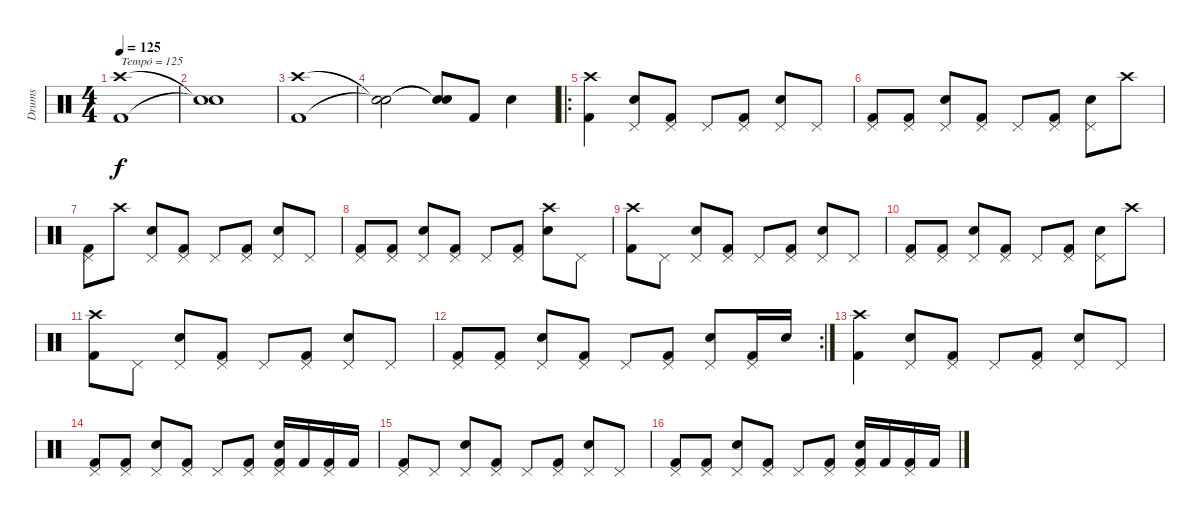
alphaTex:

\track ("Drums" "Drums") {instrument percussion}
\staff {score}
\articulation defaults
\ts (4 4)
\tempo 125
\clef neutral
\ks c
("Crash high (hit)" "Kick (hit) 2").1{txt "Tempó = 125" dy f} |
("Snare (hit)"{t} "Snare (hit)"{t}).1 |
("Crash high (hit)" "Kick (hit) 2").1 |
("Snare (hit)"{t} "Snare (hit)"{t}).2 ("Snare (hit)"{t} "Snare (hit)"{t}).8 "Kick (hit) 2".8 "Snare (hit) 2".4 |
\ro
("Crash high (hit)" "Kick (hit) 2").4 ("Pedal Hi-Hat (hit)" "Snare (hit) 2").8 ("Pedal Hi-Hat (hit)" "Kick (hit) 2").8 "Pedal Hi-Hat (hit)".8 ("Pedal Hi-Hat (hit)" "Kick (hit) 2").8 ("Pedal Hi-Hat (hit)" "Snare (hit) 2").8 "Pedal Hi-Hat (hit)".8 |
("Pedal Hi-Hat (hit)" "Kick (hit) 2").8 ("Pedal Hi-Hat (hit)" "Kick (hit) 2").8 ("Pedal Hi-Hat (hit)" "Snare (hit) 2").8 ("Pedal Hi-Hat (hit)" "Kick (hit) 2").8 "Pedal Hi-Hat (hit)".8 ("Pedal Hi-Hat (hit)" "Kick (hit) 2").8 ("Pedal Hi-Hat (hit)" "Snare (hit) 2").8 "Crash high (hit)".8 |
("Pedal Hi-Hat (hit)" "Kick (hit) 2").8 "Crash high (hit)".8 ("Pedal Hi-Hat (hit)" "Snare (hit) 2").8 ("Pedal Hi-Hat (hit)" "Kick (hit) 2").8 "Pedal Hi-Hat (hit)".8 ("Pedal Hi-Hat (hit)" "Kick (hit) 2").8 ("Pedal Hi-Hat (hit)" "Snare (hit) 2").8 "Pedal Hi-Hat (hit)".8 |
("Pedal Hi-Hat (hit)" "Kick (hit) 2").8 ("Pedal Hi-Hat (hit)" "Kick (hit) 2").8 ("Pedal Hi-Hat (hit)" "Snare (hit) 2").8 ("Pedal Hi-Hat (hit)" "Kick (hit) 2").8 "Pedal Hi-Hat (hit)".8 ("Pedal Hi-Hat (hit)" "Kick (hit) 2").8 ("Crash high (hit)" "Snare (hit) 2").8 "Pedal Hi-Hat (hit)".8 |
("Crash high (hit)" "Kick (hit) 2").8 "Pedal Hi-Hat (hit)".8 ("Pedal Hi-Hat (hit)" "Snare (hit) 2").8 ("Pedal Hi-Hat (hit)" "Kick (hit) 2").8 "Pedal Hi-Hat (hit)".8 ("Pedal Hi-Hat (hit)" "Kick (hit) 2").8 ("Pedal Hi-Hat (hit)" "Snare (hit) 2").8 "Pedal Hi-Hat (hit)".8 |
("Pedal Hi-Hat (hit)" "Kick (hit) 2").8 ("Pedal Hi-Hat (hit)" "Kick (hit) 2").8 ("Pedal Hi-Hat (hit)" "Snare (hit) 2").8 ("Pedal Hi-Hat (hit)" "Kick (hit) 2").8 "Pedal Hi-Hat (hit)".8 ("Pedal Hi-Hat (hit)" "Kick (hit) 2").8 ("Pedal Hi-Hat (hit)" "Snare (hit) 2").8 "Crash high (hit)".8 |
("Crash high (hit)" "Kick (hit) 2").8 "Pedal Hi-Hat (hit)".8 ("Pedal Hi-Hat (hit)" "Snare (hit) 2").8 ("Pedal Hi-Hat (hit)" "Kick (hit) 2").8 "Pedal Hi-Hat (hit)".8 ("Pedal Hi-Hat (hit)" "Kick (hit) 2").8 ("Pedal Hi-Hat (hit)" "Snare (hit) 2").8 "Pedal Hi-Hat (hit)".8 |
\rc 2
("Pedal Hi-Hat (hit)" "Kick (hit) 2").8 ("Pedal Hi-Hat (hit)" "Kick (hit) 2").8 ("Pedal Hi-Hat (hit)" "Snare (hit) 2").8 ("Pedal Hi-Hat (hit)" "Kick (hit) 2").8 "Pedal Hi-Hat (hit)".8 ("Pedal Hi-Hat (hit)" "Kick (hit) 2").8 ("Pedal Hi-Hat (hit)" "Snare (hit) 2").8 ("Pedal Hi-Hat (hit)" "Kick (hit) 2").16 "Snare (hit) 2".16 |
("Crash high (hit)" "Kick (hit) 2").4 ("Pedal Hi-Hat (hit)" "Snare (hit) 2").8 ("Pedal Hi-Hat (hit)" "Kick (hit) 2").8 "Pedal Hi-Hat (hit)".8 ("Pedal Hi-Hat (hit)" "Kick (hit) 2").8 ("Pedal Hi-Hat (hit)" "Snare (hit) 2").8 "Pedal Hi-Hat (hit)".8 |
("Pedal Hi-Hat (hit)" "Kick (hit) 2").8 ("Pedal Hi-Hat (hit)" "Kick (hit) 2").8 ("Pedal Hi-Hat (hit)" "Snare (hit) 2").8 ("Pedal Hi-Hat (hit)" "Kick (hit) 2").8 "Pedal Hi-Hat (hit)".8 ("Pedal Hi-Hat (hit)" "Kick (hit) 2").8 ("Pedal Hi-Hat (hit)" "Kick (hit) 2" "Snare (hit) 2").16 "Kick (hit) 2".16 ("Pedal Hi-Hat (hit)" "Kick (hit) 2").16 "Kick (hit) 2".16 |
("Pedal Hi-Hat (hit)" "Kick (hit) 2").8 "Pedal Hi-Hat (hit)".8 ("Pedal Hi-Hat (hit)" "Snare (hit) 2").8 ("Pedal Hi-Hat (hit)" "Kick (hit) 2").8 "Pedal Hi-Hat (hit)".8 ("Pedal Hi-Hat (hit)" "Kick (hit) 2").8 ("Pedal Hi-Hat (hit)" "Snare (hit) 2").8 "Pedal Hi-Hat (hit)".8 |
("Pedal Hi-Hat (hit)" "Kick (hit) 2").8 ("Pedal Hi-Hat (hit)" "Kick (hit) 2").8 ("Pedal Hi-Hat (hit)" "Snare (hit) 2").8 ("Pedal Hi-Hat (hit)" "Kick (hit) 2").8 "Pedal Hi-Hat (hit)".8 ("Pedal Hi-Hat (hit)" "Kick (hit) 2").8 ("Pedal Hi-Hat (hit)" "Kick (hit) 2" "Snare (hit) 2").16 "Kick (hit) 2".16 ("Pedal Hi-Hat (hit)" "Kick (hit) 2").16 "Kick (hit) 2".16
